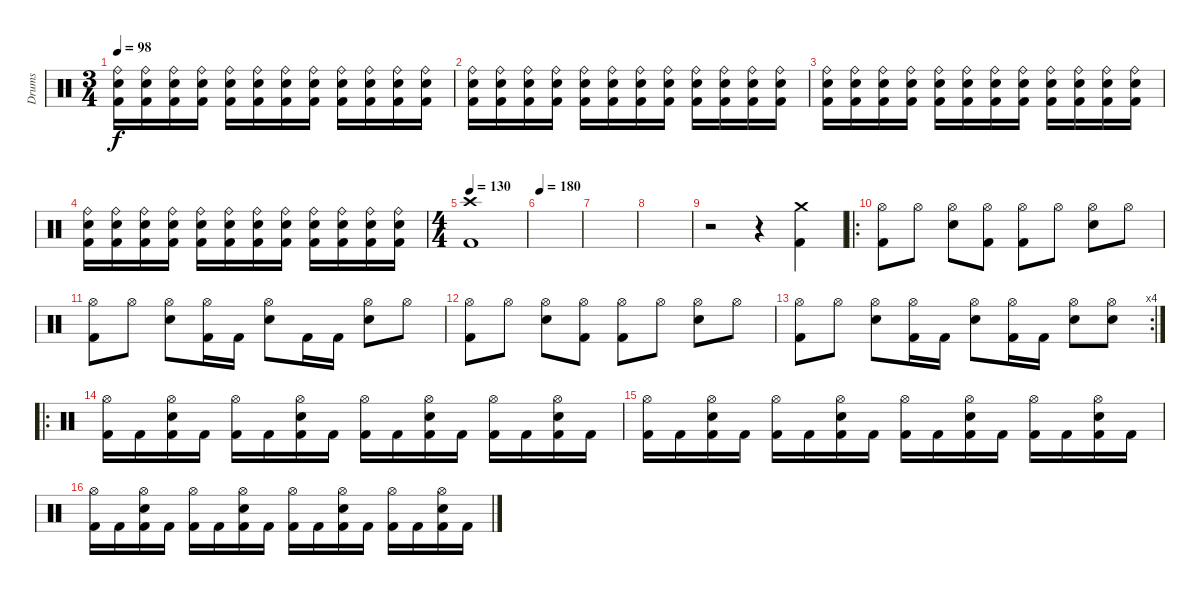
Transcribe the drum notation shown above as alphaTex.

\track ("Drums" "Drums") {instrument percussion}
\staff {score}
\articulation defaults
\ts (3 4)
\tempo 98
\clef neutral
\ks c
("Ride (bell)" "Electric Snare (hit)" "Kick (hit) 2").16{dy f} ("Ride (bell)" "Electric Snare (hit)" "Kick (hit) 2").16 ("Ride (bell)" "Electric Snare (hit)" "Kick (hit) 2").16 ("Ride (bell)" "Electric Snare (hit)" "Kick (hit) 2").16 ("Ride (bell)" "Electric Snare (hit)" "Kick (hit) 2").16 ("Ride (bell)" "Electric Snare (hit)" "Kick (hit) 2").16 ("Ride (bell)" "Electric Snare (hit)" "Kick (hit) 2").16 ("Ride (bell)" "Electric Snare (hit)" "Kick (hit) 2").16 ("Ride (bell)" "Electric Snare (hit)" "Kick (hit) 2").16 ("Ride (bell)" "Electric Snare (hit)" "Kick (hit) 2").16 ("Ride (bell)" "Electric Snare (hit)" "Kick (hit) 2").16 ("Ride (bell)" "Electric Snare (hit)" "Kick (hit) 2").16 |
("Ride (bell)" "Electric Snare (hit)" "Kick (hit) 2").16 ("Ride (bell)" "Electric Snare (hit)" "Kick (hit) 2").16 ("Ride (bell)" "Electric Snare (hit)" "Kick (hit) 2").16 ("Ride (bell)" "Electric Snare (hit)" "Kick (hit) 2").16 ("Ride (bell)" "Electric Snare (hit)" "Kick (hit) 2").16 ("Ride (bell)" "Electric Snare (hit)" "Kick (hit) 2").16 ("Ride (bell)" "Electric Snare (hit)" "Kick (hit) 2").16 ("Ride (bell)" "Electric Snare (hit)" "Kick (hit) 2").16 ("Ride (bell)" "Electric Snare (hit)" "Kick (hit) 2").16 ("Ride (bell)" "Electric Snare (hit)" "Kick (hit) 2").16 ("Ride (bell)" "Electric Snare (hit)" "Kick (hit) 2").16 ("Ride (bell)" "Electric Snare (hit)" "Kick (hit) 2").16 |
("Ride (bell)" "Electric Snare (hit)" "Kick (hit) 2").16 ("Ride (bell)" "Electric Snare (hit)" "Kick (hit) 2").16 ("Ride (bell)" "Electric Snare (hit)" "Kick (hit) 2").16 ("Ride (bell)" "Electric Snare (hit)" "Kick (hit) 2").16 ("Ride (bell)" "Electric Snare (hit)" "Kick (hit) 2").16 ("Ride (bell)" "Electric Snare (hit)" "Kick (hit) 2").16 ("Ride (bell)" "Electric Snare (hit)" "Kick (hit) 2").16 ("Ride (bell)" "Electric Snare (hit)" "Kick (hit) 2").16 ("Ride (bell)" "Electric Snare (hit)" "Kick (hit) 2").16 ("Ride (bell)" "Electric Snare (hit)" "Kick (hit) 2").16 ("Ride (bell)" "Electric Snare (hit)" "Kick (hit) 2").16 ("Ride (bell)" "Electric Snare (hit)" "Kick (hit) 2").16 |
("Ride (bell)" "Electric Snare (hit)" "Kick (hit) 2").16 ("Ride (bell)" "Electric Snare (hit)" "Kick (hit) 2").16 ("Ride (bell)" "Electric Snare (hit)" "Kick (hit) 2").16 ("Ride (bell)" "Electric Snare (hit)" "Kick (hit) 2").16 ("Ride (bell)" "Electric Snare (hit)" "Kick (hit) 2").16 ("Ride (bell)" "Electric Snare (hit)" "Kick (hit) 2").16 ("Ride (bell)" "Electric Snare (hit)" "Kick (hit) 2").16 ("Ride (bell)" "Electric Snare (hit)" "Kick (hit) 2").16 ("Ride (bell)" "Electric Snare (hit)" "Kick (hit) 2").16 ("Ride (bell)" "Electric Snare (hit)" "Kick (hit) 2").16 ("Ride (bell)" "Electric Snare (hit)" "Kick (hit) 2").16 ("Ride (bell)" "Electric Snare (hit)" "Kick (hit) 2").16 |
\ts (4 4)
\tempo 130
("Crash high (hit)" "Kick (hit) 2").1 |
\tempo 180
|
|
|
r.2 r.4 ("Crash medium (hit)" "Kick (hit) 2").4 |
\ro
("Hi-Hat (open)" "Kick (hit) 2").8 "Hi-Hat (open)".8 ("Hi-Hat (open)" "Electric Snare (hit)").8 ("Hi-Hat (open)" "Kick (hit) 2").8 ("Hi-Hat (open)" "Kick (hit) 2").8 "Hi-Hat (open)".8 ("Hi-Hat (open)" "Electric Snare (hit)").8 "Hi-Hat (open)".8 |
("Hi-Hat (open)" "Kick (hit) 2").8 "Hi-Hat (open)".8 ("Hi-Hat (open)" "Electric Snare (hit)").8 ("Hi-Hat (open)" "Kick (hit) 2").16 "Kick (hit) 2".16 ("Hi-Hat (open)" "Electric Snare (hit)").8 "Kick (hit) 2".16 "Kick (hit) 2".16 ("Hi-Hat (open)" "Electric Snare (hit)").8 "Hi-Hat (open)".8 |
("Hi-Hat (open)" "Kick (hit) 2").8 "Hi-Hat (open)".8 ("Hi-Hat (open)" "Electric Snare (hit)").8 ("Hi-Hat (open)" "Kick (hit) 2").8 ("Hi-Hat (open)" "Kick (hit) 2").8 "Hi-Hat (open)".8 ("Hi-Hat (open)" "Electric Snare (hit)").8 "Hi-Hat (open)".8 |
\rc 4
("Hi-Hat (open)" "Kick (hit) 2").8 "Hi-Hat (open)".8 ("Hi-Hat (open)" "Electric Snare (hit)").8 ("Hi-Hat (open)" "Kick (hit) 2").16 "Kick (hit) 2".16 ("Hi-Hat (open)" "Electric Snare (hit)").8 ("Hi-Hat (open)" "Kick (hit) 2").16 "Kick (hit) 2".16 ("Hi-Hat (open)" "Electric Snare (hit)").8 ("Hi-Hat (open)" "Electric Snare (hit)").8 |
\ro
("Hi-Hat (open)" "Kick (hit) 2").16 "Kick (hit) 2".16 ("Hi-Hat (open)" "Electric Snare (hit)" "Kick (hit) 2").16 "Kick (hit) 2".16 ("Hi-Hat (open)" "Kick (hit) 2").16 "Kick (hit) 2".16 ("Hi-Hat (open)" "Electric Snare (hit)" "Kick (hit) 2").16 "Kick (hit) 2".16 ("Hi-Hat (open)" "Kick (hit) 2").16 "Kick (hit) 2".16 ("Hi-Hat (open)" "Electric Snare (hit)" "Kick (hit) 2").16 "Kick (hit) 2".16 ("Hi-Hat (open)" "Kick (hit) 2").16 "Kick (hit) 2".16 ("Hi-Hat (open)" "Electric Snare (hit)" "Kick (hit) 2").16 "Kick (hit) 2".16 |
("Hi-Hat (open)" "Kick (hit) 2").16 "Kick (hit) 2".16 ("Hi-Hat (open)" "Electric Snare (hit)" "Kick (hit) 2").16 "Kick (hit) 2".16 ("Hi-Hat (open)" "Kick (hit) 2").16 "Kick (hit) 2".16 ("Hi-Hat (open)" "Electric Snare (hit)" "Kick (hit) 2").16 "Kick (hit) 2".16 ("Hi-Hat (open)" "Kick (hit) 2").16 "Kick (hit) 2".16 ("Hi-Hat (open)" "Electric Snare (hit)" "Kick (hit) 2").16 "Kick (hit) 2".16 ("Hi-Hat (open)" "Kick (hit) 2").16 "Kick (hit) 2".16 ("Hi-Hat (open)" "Electric Snare (hit)" "Kick (hit) 2").16 "Kick (hit) 2".16 |
("Hi-Hat (open)" "Kick (hit) 2").16 "Kick (hit) 2".16 ("Hi-Hat (open)" "Electric Snare (hit)" "Kick (hit) 2").16 "Kick (hit) 2".16 ("Hi-Hat (open)" "Kick (hit) 2").16 "Kick (hit) 2".16 ("Hi-Hat (open)" "Electric Snare (hit)" "Kick (hit) 2").16 "Kick (hit) 2".16 ("Hi-Hat (open)" "Kick (hit) 2").16 "Kick (hit) 2".16 ("Hi-Hat (open)" "Electric Snare (hit)" "Kick (hit) 2").16 "Kick (hit) 2".16 ("Hi-Hat (open)" "Kick (hit) 2").16 "Kick (hit) 2".16 ("Hi-Hat (open)" "Electric Snare (hit)" "Kick (hit) 2").16 "Kick (hit) 2".16
